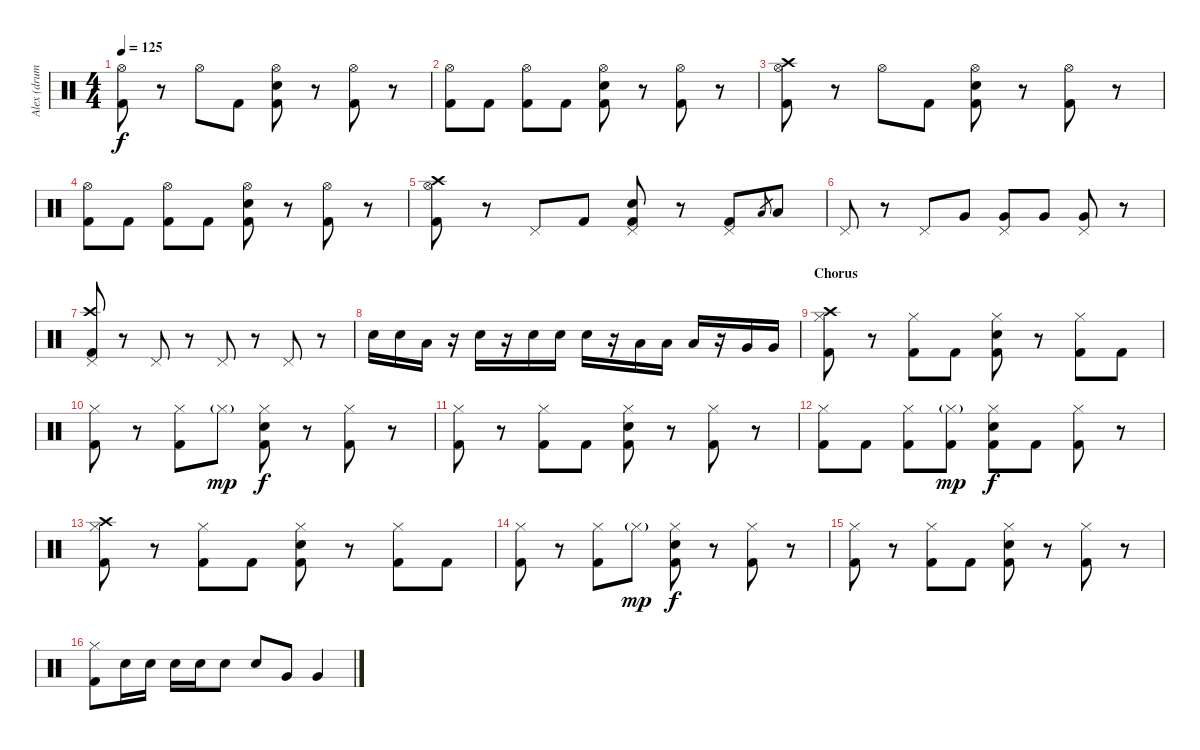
\track ("Alex (drums)" "Alex (drum") {instrument percussion}
\staff {score}
\articulation defaults
\ts (4 4)
\tempo 125
\clef neutral
\ks c
("Hi-Hat (open)" "Kick (hit) 2").8{dy f} r.8 "Hi-Hat (open)".8 "Kick (hit) 2".8 ("Hi-Hat (open)" "Snare (hit) 2" "Kick (hit) 2").8 r.8 ("Hi-Hat (open)" "Kick (hit) 2").8 r.8 |
("Hi-Hat (open)" "Kick (hit) 2").8 "Kick (hit) 2".8 ("Hi-Hat (open)" "Kick (hit) 2").8 "Kick (hit) 2".8 ("Hi-Hat (open)" "Snare (hit) 2" "Kick (hit) 2").8 r.8 ("Hi-Hat (open)" "Kick (hit) 2").8 r.8 |
("Hi-Hat (open)" "Kick (hit) 2" "Crash high (hit)").8 r.8 "Hi-Hat (open)".8 "Kick (hit) 2".8 ("Hi-Hat (open)" "Snare (hit) 2" "Kick (hit) 2").8 r.8 ("Hi-Hat (open)" "Kick (hit) 2").8 r.8 |
("Hi-Hat (open)" "Kick (hit) 2").8 "Kick (hit) 2".8 ("Hi-Hat (open)" "Kick (hit) 2").8 "Kick (hit) 2".8 ("Hi-Hat (open)" "Snare (hit) 2" "Kick (hit) 2").8 r.8 ("Hi-Hat (open)" "Kick (hit) 2").8 r.8 |
("Hi-Hat (open)" "Kick (hit) 2" "Crash high (hit)").8 r.8 "Pedal Hi-Hat (hit)".8 "Kick (hit) 2".8 ("Pedal Hi-Hat (hit)" "Snare (hit) 2" "Kick (hit) 2").8 r.8 ("Pedal Hi-Hat (hit)" "Kick (hit) 2").8 "Low Tom (hit)".8{gr} "Low Tom (hit)".8 |
"Pedal Hi-Hat (hit)".8 r.8 "Pedal Hi-Hat (hit)".8 "Very Low Tom (hit)".8 ("Pedal Hi-Hat (hit)" "Very Low Tom (hit)").8 "Very Low Tom (hit)".8 ("Pedal Hi-Hat (hit)" "Very Low Tom (hit)").8 r.8 |
("Pedal Hi-Hat (hit)" "Kick (hit) 2" "Crash high (hit)").8 r.8 "Pedal Hi-Hat (hit)".8 r.8 "Pedal Hi-Hat (hit)".8 r.8 "Pedal Hi-Hat (hit)".8 r.8 |
"Snare (hit) 2".16 "Snare (hit) 2".16 "Low Tom (hit)".16 r.16 "Snare (hit) 2".16 r.16 "Snare (hit) 2".16 "Snare (hit) 2".16 "Snare (hit) 2".16 r.16 "Low Tom (hit)".16 "Low Tom (hit)".16 "Low Tom (hit)".16 r.16 "Very Low Tom (hit)".16 "Very Low Tom (hit)".16 |
\section ("" "Chorus")
("Hi-Hat (closed)" "Kick (hit) 2" "Crash high (hit)").8 r.8 ("Hi-Hat (closed)" "Kick (hit) 2").8 "Kick (hit) 2".8 ("Hi-Hat (closed)" "Snare (hit) 2" "Kick (hit) 2").8 r.8 ("Hi-Hat (closed)" "Kick (hit) 2").8 "Kick (hit) 2".8 |
("Hi-Hat (closed)" "Kick (hit) 2").8 r.8 ("Hi-Hat (closed)" "Kick (hit) 2").8 "Hi-Hat (closed)"{g}.8{dy mp} ("Hi-Hat (closed)" "Snare (hit) 2" "Kick (hit) 2").8{dy f} r.8 ("Hi-Hat (closed)" "Kick (hit) 2").8 r.8 |
("Hi-Hat (closed)" "Kick (hit) 2").8 r.8 ("Hi-Hat (closed)" "Kick (hit) 2").8 "Kick (hit) 2".8 ("Hi-Hat (closed)" "Snare (hit) 2" "Kick (hit) 2").8 r.8 ("Hi-Hat (closed)" "Kick (hit) 2").8 r.8 |
("Hi-Hat (closed)" "Kick (hit) 2").8 "Kick (hit) 2".8 ("Hi-Hat (closed)" "Kick (hit) 2").8 ("Hi-Hat (closed)"{g} "Kick (hit) 2").8{dy mp} ("Hi-Hat (closed)" "Snare (hit) 2" "Kick (hit) 2").8{dy f} "Kick (hit) 2".8 ("Hi-Hat (closed)" "Kick (hit) 2").8 r.8 |
("Hi-Hat (closed)" "Kick (hit) 2" "Crash high (hit)").8 r.8 ("Hi-Hat (closed)" "Kick (hit) 2").8 "Kick (hit) 2".8 ("Hi-Hat (closed)" "Snare (hit) 2" "Kick (hit) 2").8 r.8 ("Hi-Hat (closed)" "Kick (hit) 2").8 "Kick (hit) 2".8 |
("Hi-Hat (closed)" "Kick (hit) 2").8 r.8 ("Hi-Hat (closed)" "Kick (hit) 2").8 "Hi-Hat (closed)"{g}.8{dy mp} ("Hi-Hat (closed)" "Snare (hit) 2" "Kick (hit) 2").8{dy f} r.8 ("Hi-Hat (closed)" "Kick (hit) 2").8 r.8 |
("Hi-Hat (closed)" "Kick (hit) 2").8 r.8 ("Hi-Hat (closed)" "Kick (hit) 2").8 "Kick (hit) 2".8 ("Hi-Hat (closed)" "Snare (hit) 2" "Kick (hit) 2").8 r.8 ("Hi-Hat (closed)" "Kick (hit) 2").8 r.8 |
("Hi-Hat (closed)" "Kick (hit) 2").8 "Snare (hit) 2".16 "Snare (hit) 2".16 "Snare (hit) 2".16 "Snare (hit) 2".16 "Snare (hit) 2".8 "Snare (hit) 2".8 "Very Low Tom (hit)".8 "Very Low Tom (hit)".4
